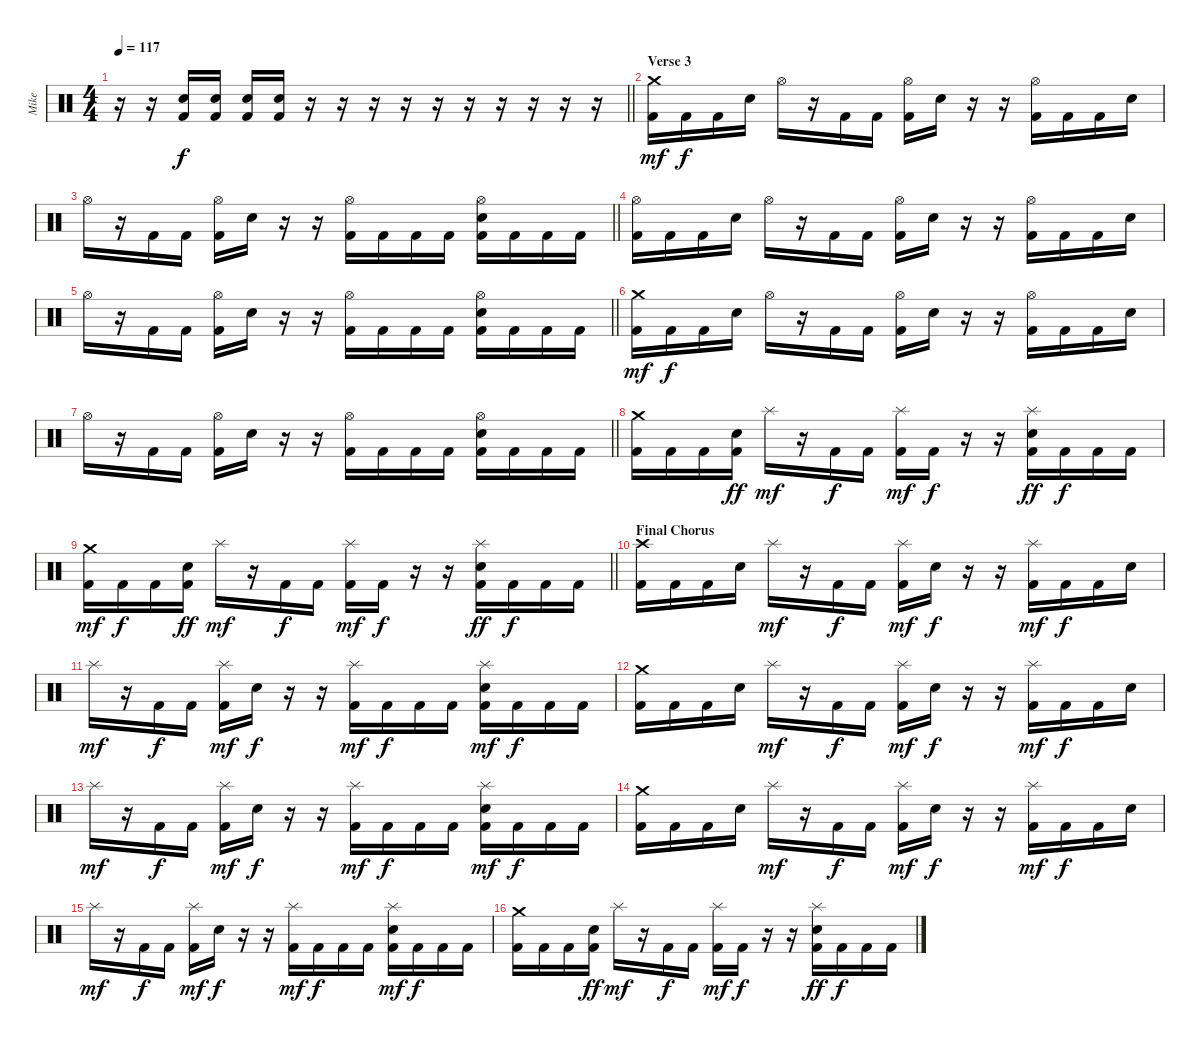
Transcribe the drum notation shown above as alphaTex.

\track ("Mike" "Mike") {instrument percussion}
\staff {score}
\articulation defaults
\ts (4 4)
\tempo 117
\clef neutral
\barLineRight lightlight
\ks c
r.16{dy f} r.16 ("Snare (hit) 2" "Kick (hit) 2").16 ("Snare (hit) 2" "Kick (hit) 2").16 ("Snare (hit) 2" "Kick (hit) 2").16 ("Snare (hit) 2" "Kick (hit) 2").16 r.16 r.16 r.16 r.16 r.16 r.16 r.16 r.16 r.16 r.16 |
\section ("" "Verse 3")
("Crash medium (hit)" "Kick (hit) 2").16{dy mf} "Kick (hit) 2".16{dy f} "Kick (hit) 2".16 "Snare (hit) 2".16 "Hi-Hat (open)".16 r.16 "Kick (hit) 2".16 "Kick (hit) 2".16 ("Hi-Hat (open)" "Kick (hit) 2").16 "Snare (hit) 2".16 r.16 r.16 ("Hi-Hat (open)" "Kick (hit) 2").16 "Kick (hit) 2".16 "Kick (hit) 2".16 "Snare (hit) 2".16 |
\barLineRight lightlight "Hi-Hat (open)".16
r.16 "Kick (hit) 2".16 "Kick (hit) 2".16 ("Hi-Hat (open)" "Kick (hit) 2").16 "Snare (hit) 2".16 r.16 r.16 ("Hi-Hat (open)" "Kick (hit) 2").16 "Kick (hit) 2".16 "Kick (hit) 2".16 "Kick (hit) 2".16 ("Hi-Hat (open)" "Snare (hit) 2" "Kick (hit) 2").16 "Kick (hit) 2".16 "Kick (hit) 2".16 "Kick (hit) 2".16 |
("Hi-Hat (open)" "Kick (hit) 2").16 "Kick (hit) 2".16 "Kick (hit) 2".16 "Snare (hit) 2".16 "Hi-Hat (open)".16 r.16 "Kick (hit) 2".16 "Kick (hit) 2".16 ("Hi-Hat (open)" "Kick (hit) 2").16 "Snare (hit) 2".16 r.16 r.16 ("Hi-Hat (open)" "Kick (hit) 2").16 "Kick (hit) 2".16 "Kick (hit) 2".16 "Snare (hit) 2".16 |
\barLineRight lightlight "Hi-Hat (open)".16
r.16 "Kick (hit) 2".16 "Kick (hit) 2".16 ("Hi-Hat (open)" "Kick (hit) 2").16 "Snare (hit) 2".16 r.16 r.16 ("Hi-Hat (open)" "Kick (hit) 2").16 "Kick (hit) 2".16 "Kick (hit) 2".16 "Kick (hit) 2".16 ("Hi-Hat (open)" "Snare (hit) 2" "Kick (hit) 2").16 "Kick (hit) 2".16 "Kick (hit) 2".16 "Kick (hit) 2".16 |
("Crash medium (hit)" "Kick (hit) 2").16{dy mf} "Kick (hit) 2".16{dy f} "Kick (hit) 2".16 "Snare (hit) 2".16 "Hi-Hat (open)".16 r.16 "Kick (hit) 2".16 "Kick (hit) 2".16 ("Hi-Hat (open)" "Kick (hit) 2").16 "Snare (hit) 2".16 r.16 r.16 ("Hi-Hat (open)" "Kick (hit) 2").16 "Kick (hit) 2".16 "Kick (hit) 2".16 "Snare (hit) 2".16 |
\barLineRight lightlight "Hi-Hat (open)".16
r.16 "Kick (hit) 2".16 "Kick (hit) 2".16 ("Hi-Hat (open)" "Kick (hit) 2").16 "Snare (hit) 2".16 r.16 r.16 ("Hi-Hat (open)" "Kick (hit) 2").16 "Kick (hit) 2".16 "Kick (hit) 2".16 "Kick (hit) 2".16 ("Hi-Hat (open)" "Snare (hit) 2" "Kick (hit) 2").16 "Kick (hit) 2".16 "Kick (hit) 2".16 "Kick (hit) 2".16 |
("Crash medium (hit)" "Kick (hit) 2").16 "Kick (hit) 2".16 "Kick (hit) 2".16 ("Snare (hit) 2" "Kick (hit) 2").16{dy ff} "Splash (hit)".16{dy mf} r.16 "Kick (hit) 2".16{dy f} "Kick (hit) 2".16 ("Splash (hit)" "Kick (hit) 2").16{dy mf} "Kick (hit) 2".16{dy f} r.16 r.16 ("Splash (hit)" "Snare (hit) 2" "Kick (hit) 2").16{dy ff} "Kick (hit) 2".16{dy f} "Kick (hit) 2".16 "Kick (hit) 2".16 |
\barLineRight lightlight
("Crash medium (hit)" "Kick (hit) 2").16{dy mf} "Kick (hit) 2".16{dy f} "Kick (hit) 2".16 ("Snare (hit) 2" "Kick (hit) 2").16{dy ff} "Splash (hit)".16{dy mf} r.16 "Kick (hit) 2".16{dy f} "Kick (hit) 2".16 ("Splash (hit)" "Kick (hit) 2").16{dy mf} "Kick (hit) 2".16{dy f} r.16 r.16 ("Splash (hit)" "Snare (hit) 2" "Kick (hit) 2").16{dy ff} "Kick (hit) 2".16{dy f} "Kick (hit) 2".16 "Kick (hit) 2".16 |
\section ("" "Final Chorus")
("Crash high (hit)" "Kick (hit) 2").16 "Kick (hit) 2".16 "Kick (hit) 2".16 "Snare (hit) 2".16 "Splash (hit)".16{dy mf} r.16 "Kick (hit) 2".16{dy f} "Kick (hit) 2".16 ("Splash (hit)" "Kick (hit) 2").16{dy mf} "Snare (hit) 2".16{dy f} r.16 r.16 ("Splash (hit)" "Kick (hit) 2").16{dy mf} "Kick (hit) 2".16{dy f} "Kick (hit) 2".16 "Snare (hit) 2".16 |
"Splash (hit)".16{dy mf} r.16 "Kick (hit) 2".16{dy f} "Kick (hit) 2".16 ("Splash (hit)" "Kick (hit) 2").16{dy mf} "Snare (hit) 2".16{dy f} r.16 r.16 ("Splash (hit)" "Kick (hit) 2").16{dy mf} "Kick (hit) 2".16{dy f} "Kick (hit) 2".16 "Kick (hit) 2".16 ("Splash (hit)" "Snare (hit) 2" "Kick (hit) 2").16{dy mf} "Kick (hit) 2".16{dy f} "Kick (hit) 2".16 "Kick (hit) 2".16 |
("Crash medium (hit)" "Kick (hit) 2").16 "Kick (hit) 2".16 "Kick (hit) 2".16 "Snare (hit) 2".16 "Splash (hit)".16{dy mf} r.16 "Kick (hit) 2".16{dy f} "Kick (hit) 2".16 ("Splash (hit)" "Kick (hit) 2").16{dy mf} "Snare (hit) 2".16{dy f} r.16 r.16 ("Splash (hit)" "Kick (hit) 2").16{dy mf} "Kick (hit) 2".16{dy f} "Kick (hit) 2".16 "Snare (hit) 2".16 |
"Splash (hit)".16{dy mf} r.16 "Kick (hit) 2".16{dy f} "Kick (hit) 2".16 ("Splash (hit)" "Kick (hit) 2").16{dy mf} "Snare (hit) 2".16{dy f} r.16 r.16 ("Splash (hit)" "Kick (hit) 2").16{dy mf} "Kick (hit) 2".16{dy f} "Kick (hit) 2".16 "Kick (hit) 2".16 ("Splash (hit)" "Snare (hit) 2" "Kick (hit) 2").16{dy mf} "Kick (hit) 2".16{dy f} "Kick (hit) 2".16 "Kick (hit) 2".16 |
("Crash medium (hit)" "Kick (hit) 2").16 "Kick (hit) 2".16 "Kick (hit) 2".16 "Snare (hit) 2".16 "Splash (hit)".16{dy mf} r.16 "Kick (hit) 2".16{dy f} "Kick (hit) 2".16 ("Splash (hit)" "Kick (hit) 2").16{dy mf} "Snare (hit) 2".16{dy f} r.16 r.16 ("Splash (hit)" "Kick (hit) 2").16{dy mf} "Kick (hit) 2".16{dy f} "Kick (hit) 2".16 "Snare (hit) 2".16 |
"Splash (hit)".16{dy mf} r.16 "Kick (hit) 2".16{dy f} "Kick (hit) 2".16 ("Splash (hit)" "Kick (hit) 2").16{dy mf} "Snare (hit) 2".16{dy f} r.16 r.16 ("Splash (hit)" "Kick (hit) 2").16{dy mf} "Kick (hit) 2".16{dy f} "Kick (hit) 2".16 "Kick (hit) 2".16 ("Splash (hit)" "Snare (hit) 2" "Kick (hit) 2").16{dy mf} "Kick (hit) 2".16{dy f} "Kick (hit) 2".16 "Kick (hit) 2".16 |
("Crash medium (hit)" "Kick (hit) 2").16 "Kick (hit) 2".16 "Kick (hit) 2".16 ("Snare (hit) 2" "Kick (hit) 2").16{dy ff} "Splash (hit)".16{dy mf} r.16 "Kick (hit) 2".16{dy f} "Kick (hit) 2".16 ("Splash (hit)" "Kick (hit) 2").16{dy mf} "Kick (hit) 2".16{dy f} r.16 r.16 ("Splash (hit)" "Snare (hit) 2" "Kick (hit) 2").16{dy ff} "Kick (hit) 2".16{dy f} "Kick (hit) 2".16 "Kick (hit) 2".16
